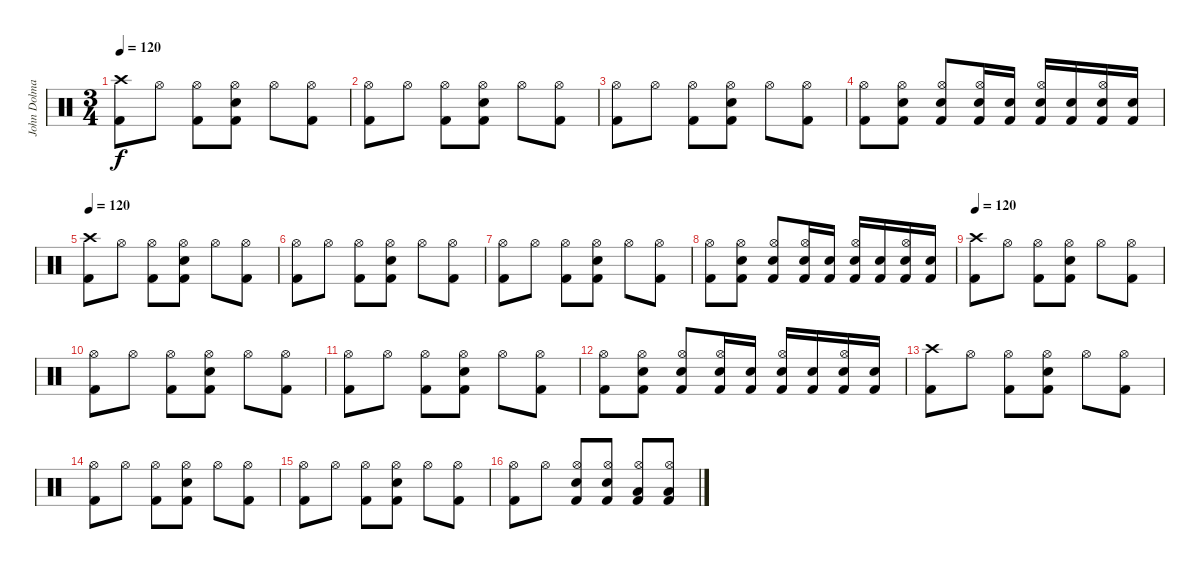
\track ("John Dolmayan" "John Dolma") {instrument percussion}
\staff {score}
\articulation defaults
\ts (3 4)
\tempo 120
\clef neutral
\ks c
("Crash high (hit)" "Kick (hit) 2").8{dy f} "Hi-Hat (open)".8 ("Hi-Hat (open)" "Kick (hit) 2").8 ("Hi-Hat (open)" "Electric Snare (hit)" "Kick (hit) 2").8 "Hi-Hat (open)".8 ("Hi-Hat (open)" "Kick (hit) 2").8 |
("Hi-Hat (open)" "Kick (hit) 2").8 "Hi-Hat (open)".8 ("Hi-Hat (open)" "Kick (hit) 2").8 ("Hi-Hat (open)" "Electric Snare (hit)" "Kick (hit) 2").8 "Hi-Hat (open)".8 ("Hi-Hat (open)" "Kick (hit) 2").8 |
("Hi-Hat (open)" "Kick (hit) 2").8 "Hi-Hat (open)".8 ("Hi-Hat (open)" "Kick (hit) 2").8 ("Hi-Hat (open)" "Electric Snare (hit)" "Kick (hit) 2").8 "Hi-Hat (open)".8 ("Hi-Hat (open)" "Kick (hit) 2").8 |
("Hi-Hat (open)" "Kick (hit) 2").8 ("Hi-Hat (open)" "Electric Snare (hit)" "Kick (hit) 2").8 ("Hi-Hat (open)" "Electric Snare (hit)" "Kick (hit) 2").8 ("Hi-Hat (open)" "Electric Snare (hit)" "Kick (hit) 2").16 ("Electric Snare (hit)" "Kick (hit) 2").16 ("Hi-Hat (open)" "Electric Snare (hit)" "Kick (hit) 2").16 ("Electric Snare (hit)" "Kick (hit) 2").16 ("Hi-Hat (open)" "Electric Snare (hit)" "Kick (hit) 2").16 ("Electric Snare (hit)" "Kick (hit) 2").16 |
\tempo 120
("Crash high (hit)" "Kick (hit) 2").8 "Hi-Hat (open)".8 ("Hi-Hat (open)" "Kick (hit) 2").8 ("Hi-Hat (open)" "Electric Snare (hit)" "Kick (hit) 2").8 "Hi-Hat (open)".8 ("Hi-Hat (open)" "Kick (hit) 2").8 |
("Hi-Hat (open)" "Kick (hit) 2").8 "Hi-Hat (open)".8 ("Hi-Hat (open)" "Kick (hit) 2").8 ("Hi-Hat (open)" "Electric Snare (hit)" "Kick (hit) 2").8 "Hi-Hat (open)".8 ("Hi-Hat (open)" "Kick (hit) 2").8 |
("Hi-Hat (open)" "Kick (hit) 2").8 "Hi-Hat (open)".8 ("Hi-Hat (open)" "Kick (hit) 2").8 ("Hi-Hat (open)" "Electric Snare (hit)" "Kick (hit) 2").8 "Hi-Hat (open)".8 ("Hi-Hat (open)" "Kick (hit) 2").8 |
("Hi-Hat (open)" "Kick (hit) 2").8 ("Hi-Hat (open)" "Electric Snare (hit)" "Kick (hit) 2").8 ("Hi-Hat (open)" "Electric Snare (hit)" "Kick (hit) 2").8 ("Hi-Hat (open)" "Electric Snare (hit)" "Kick (hit) 2").16 ("Electric Snare (hit)" "Kick (hit) 2").16 ("Hi-Hat (open)" "Electric Snare (hit)" "Kick (hit) 2").16 ("Electric Snare (hit)" "Kick (hit) 2").16 ("Hi-Hat (open)" "Electric Snare (hit)" "Kick (hit) 2").16 ("Electric Snare (hit)" "Kick (hit) 2").16 |
\tempo 120
("Crash high (hit)" "Kick (hit) 2").8 "Hi-Hat (open)".8 ("Hi-Hat (open)" "Kick (hit) 2").8 ("Hi-Hat (open)" "Electric Snare (hit)" "Kick (hit) 2").8 "Hi-Hat (open)".8 ("Hi-Hat (open)" "Kick (hit) 2").8 |
("Hi-Hat (open)" "Kick (hit) 2").8 "Hi-Hat (open)".8 ("Hi-Hat (open)" "Kick (hit) 2").8 ("Hi-Hat (open)" "Electric Snare (hit)" "Kick (hit) 2").8 "Hi-Hat (open)".8 ("Hi-Hat (open)" "Kick (hit) 2").8 |
("Hi-Hat (open)" "Kick (hit) 2").8 "Hi-Hat (open)".8 ("Hi-Hat (open)" "Kick (hit) 2").8 ("Hi-Hat (open)" "Electric Snare (hit)" "Kick (hit) 2").8 "Hi-Hat (open)".8 ("Hi-Hat (open)" "Kick (hit) 2").8 |
("Hi-Hat (open)" "Kick (hit) 2").8 ("Hi-Hat (open)" "Electric Snare (hit)" "Kick (hit) 2").8 ("Hi-Hat (open)" "Electric Snare (hit)" "Kick (hit) 2").8 ("Hi-Hat (open)" "Electric Snare (hit)" "Kick (hit) 2").16 ("Electric Snare (hit)" "Kick (hit) 2").16 ("Hi-Hat (open)" "Electric Snare (hit)" "Kick (hit) 2").16 ("Electric Snare (hit)" "Kick (hit) 2").16 ("Hi-Hat (open)" "Electric Snare (hit)" "Kick (hit) 2").16 ("Electric Snare (hit)" "Kick (hit) 2").16 |
("Crash high (hit)" "Kick (hit) 2").8 "Hi-Hat (open)".8 ("Hi-Hat (open)" "Kick (hit) 2").8 ("Hi-Hat (open)" "Electric Snare (hit)" "Kick (hit) 2").8 "Hi-Hat (open)".8 ("Hi-Hat (open)" "Kick (hit) 2").8 |
("Hi-Hat (open)" "Kick (hit) 2").8 "Hi-Hat (open)".8 ("Hi-Hat (open)" "Kick (hit) 2").8 ("Hi-Hat (open)" "Electric Snare (hit)" "Kick (hit) 2").8 "Hi-Hat (open)".8 ("Hi-Hat (open)" "Kick (hit) 2").8 |
("Hi-Hat (open)" "Kick (hit) 2").8 "Hi-Hat (open)".8 ("Hi-Hat (open)" "Kick (hit) 2").8 ("Hi-Hat (open)" "Electric Snare (hit)" "Kick (hit) 2").8 "Hi-Hat (open)".8 ("Hi-Hat (open)" "Kick (hit) 2").8 |
("Hi-Hat (open)" "Kick (hit) 2").8 "Hi-Hat (open)".8 ("Hi-Hat (open)" "Electric Snare (hit)" "Kick (hit) 2").8 ("Hi-Hat (open)" "Electric Snare (hit)" "Kick (hit) 2").8 ("Hi-Hat (open)" "Low Floor Tom (hit)" "Kick (hit) 2").8 ("Hi-Hat (open)" "Low Floor Tom (hit)" "Kick (hit) 2").8
